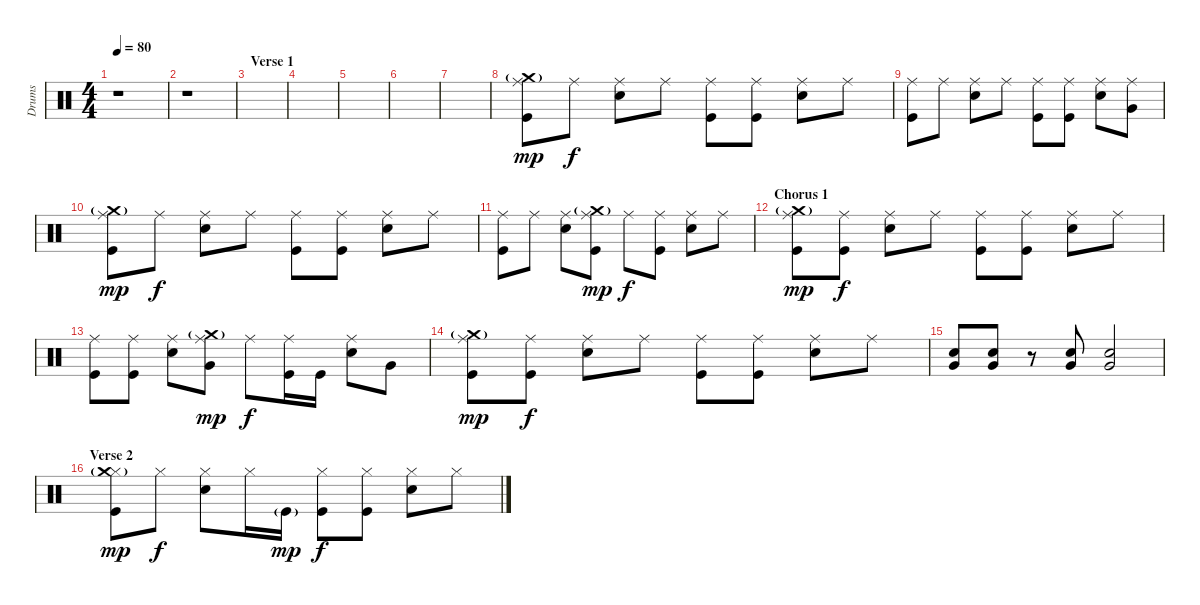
\track ("Drums" "Drums") {instrument percussion}
\staff {score}
\articulation defaults
\ts (4 4)
\tempo 80
\clef neutral
\ks c
r.1{dy mp} |
r.1 |
\section ("" "Verse 1")
|
|
|
|
|
("Ride (middle)" "Crash medium (hit)"{g} "Kick (hit)").8 "Ride (middle)".8{dy f} ("Ride (middle)" "Snare (hit) 2").8 "Ride (middle)".8 ("Ride (middle)" "Kick (hit)").8 ("Ride (middle)" "Kick (hit)").8 ("Ride (middle)" "Snare (hit) 2").8 "Ride (middle)".8 |
("Ride (middle)" "Kick (hit)").8 "Ride (middle)".8 ("Ride (middle)" "Snare (hit) 2").8 "Ride (middle)".8 ("Ride (middle)" "Kick (hit)").8 ("Ride (middle)" "Kick (hit)").8 ("Ride (middle)" "Snare (hit) 2").8 ("Ride (middle)" "Very Low Tom (hit)").8 |
("Ride (middle)" "Crash medium (hit)"{g} "Kick (hit)").8{dy mp} "Ride (middle)".8{dy f} ("Ride (middle)" "Snare (hit) 2").8 "Ride (middle)".8 ("Ride (middle)" "Kick (hit)").8 ("Ride (middle)" "Kick (hit)").8 ("Ride (middle)" "Snare (hit) 2").8 "Ride (middle)".8 |
("Ride (middle)" "Kick (hit)").8 "Ride (middle)".8 ("Ride (middle)" "Snare (hit) 2").8 ("Ride (middle)" "Crash medium (hit)"{g} "Kick (hit)").8{dy mp} "Ride (middle)".8{dy f} ("Ride (middle)" "Kick (hit)").8 ("Ride (middle)" "Snare (hit) 2").8 "Ride (middle)".8 |
\section ("" "Chorus 1")
("Ride (middle)" "Crash medium (hit)"{g} "Kick (hit)").8{dy mp} ("Ride (middle)" "Kick (hit)").8{dy f} ("Ride (middle)" "Snare (hit) 2").8 "Ride (middle)".8 ("Ride (middle)" "Kick (hit)").8 ("Ride (middle)" "Kick (hit)").8 ("Ride (middle)" "Snare (hit) 2").8 "Ride (middle)".8 |
("Ride (middle)" "Kick (hit)").8 ("Ride (middle)" "Kick (hit)").8 ("Ride (middle)" "Snare (hit) 2").8 ("Ride (middle)" "Crash medium (hit)"{g} "Very Low Tom (hit)").8{dy mp} "Ride (middle)".8{dy f} ("Ride (middle)" "Kick (hit)").16 "Kick (hit)".16 ("Ride (middle)" "Snare (hit) 2").8 "Very Low Tom (hit)".8 |
("Ride (middle)" "Crash medium (hit)"{g} "Kick (hit)").8{dy mp} ("Ride (middle)" "Kick (hit)").8{dy f} ("Ride (middle)" "Snare (hit) 2").8 "Ride (middle)".8 ("Ride (middle)" "Kick (hit)").8 ("Ride (middle)" "Kick (hit)").8 ("Ride (middle)" "Snare (hit) 2").8 "Ride (middle)".8 |
("Snare (hit) 2" "Very Low Tom (hit)").8 ("Snare (hit) 2" "Very Low Tom (hit)").8 r.8 ("Snare (hit) 2" "Very Low Tom (hit)").8 ("Snare (hit) 2" "Very Low Tom (hit)").2 |
\section ("" "Verse 2")
("Hi-Hat (closed)" "Crash medium (hit)"{g} "Kick (hit)").8{dy mp} "Hi-Hat (closed)".8{dy f} ("Hi-Hat (closed)" "Snare (hit) 2").8 "Hi-Hat (closed)".16 "Kick (hit)"{g}.16{dy mp} ("Hi-Hat (closed)" "Kick (hit)").8{dy f} ("Hi-Hat (closed)" "Kick (hit)").8 ("Hi-Hat (closed)" "Snare (hit) 2").8 "Hi-Hat (closed)".8
